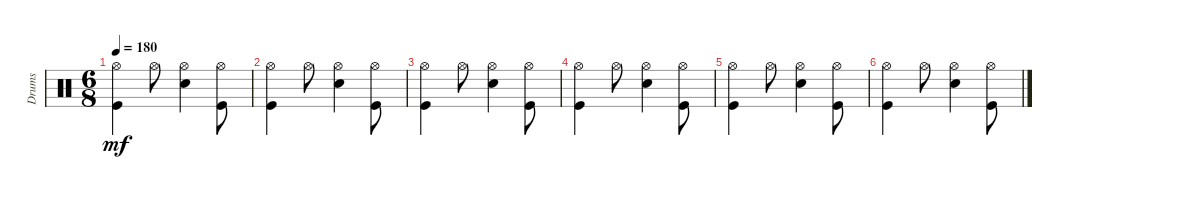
\track ("Drums" "Drums") {instrument percussion}
\staff {score}
\articulation defaults
\ts (6 8)
\tempo 180
\clef neutral
\ks c
("Hi-Hat (open)" "Kick (hit)").4{dy mf} "Hi-Hat (open)".8 ("Hi-Hat (open)" "Electric Snare (hit)").4 ("Hi-Hat (open)" "Kick (hit)").8 |
("Hi-Hat (open)" "Kick (hit)").4 "Hi-Hat (open)".8 ("Hi-Hat (open)" "Electric Snare (hit)").4 ("Hi-Hat (open)" "Kick (hit)").8 |
("Hi-Hat (open)" "Kick (hit)").4{volume 0} "Hi-Hat (open)".8 ("Hi-Hat (open)" "Electric Snare (hit)").4 ("Hi-Hat (open)" "Kick (hit)").8 |
("Hi-Hat (open)" "Kick (hit)").4 "Hi-Hat (open)".8 ("Hi-Hat (open)" "Electric Snare (hit)").4 ("Hi-Hat (open)" "Kick (hit)").8 |
("Hi-Hat (open)" "Kick (hit)").4 "Hi-Hat (open)".8 ("Hi-Hat (open)" "Electric Snare (hit)").4 ("Hi-Hat (open)" "Kick (hit)").8 |
("Hi-Hat (open)" "Kick (hit)").4 "Hi-Hat (open)".8 ("Hi-Hat (open)" "Electric Snare (hit)").4 ("Hi-Hat (open)" "Kick (hit)").8
